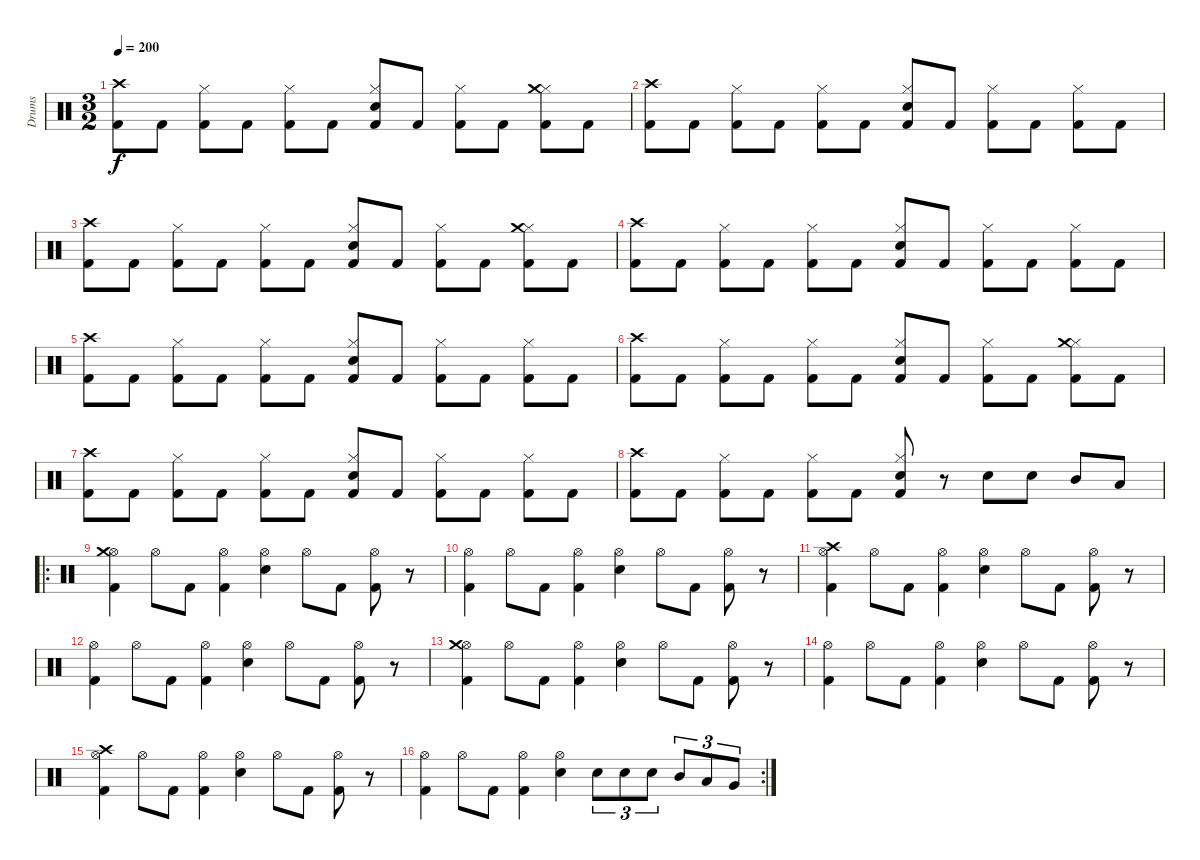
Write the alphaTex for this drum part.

\track ("Drums" "Drums") {instrument percussion}
\staff {score}
\articulation defaults
\ts (3 2)
\tempo 200
\clef neutral
\ks c
("Kick (hit) 2" "Crash high (hit)").8{dy f} "Kick (hit) 2".8 ("Kick (hit) 2" "Hi-Hat (closed)").8 "Kick (hit) 2".8 ("Kick (hit) 2" "Hi-Hat (closed)").8 "Kick (hit) 2".8 ("Kick (hit) 2" "Hi-Hat (closed)" "Snare (hit) 2").8 "Kick (hit) 2".8 ("Kick (hit) 2" "Hi-Hat (closed)").8 "Kick (hit) 2".8 ("Kick (hit) 2" "Hi-Hat (closed)" "Crash medium (hit)").8 "Kick (hit) 2".8 |
("Kick (hit) 2" "Crash high (hit)").8 "Kick (hit) 2".8 ("Kick (hit) 2" "Hi-Hat (closed)").8 "Kick (hit) 2".8 ("Kick (hit) 2" "Hi-Hat (closed)").8 "Kick (hit) 2".8 ("Kick (hit) 2" "Hi-Hat (closed)" "Snare (hit) 2").8 "Kick (hit) 2".8 ("Kick (hit) 2" "Hi-Hat (closed)").8 "Kick (hit) 2".8 ("Kick (hit) 2" "Hi-Hat (closed)").8 "Kick (hit) 2".8 |
("Kick (hit) 2" "Crash high (hit)").8 "Kick (hit) 2".8 ("Kick (hit) 2" "Hi-Hat (closed)").8 "Kick (hit) 2".8 ("Kick (hit) 2" "Hi-Hat (closed)").8 "Kick (hit) 2".8 ("Kick (hit) 2" "Hi-Hat (closed)" "Snare (hit) 2").8 "Kick (hit) 2".8 ("Kick (hit) 2" "Hi-Hat (closed)").8 "Kick (hit) 2".8 ("Kick (hit) 2" "Hi-Hat (closed)" "Crash medium (hit)").8 "Kick (hit) 2".8 |
("Kick (hit) 2" "Crash high (hit)").8 "Kick (hit) 2".8 ("Kick (hit) 2" "Hi-Hat (closed)").8 "Kick (hit) 2".8 ("Kick (hit) 2" "Hi-Hat (closed)").8 "Kick (hit) 2".8 ("Kick (hit) 2" "Hi-Hat (closed)" "Snare (hit) 2").8 "Kick (hit) 2".8 ("Kick (hit) 2" "Hi-Hat (closed)").8 "Kick (hit) 2".8 ("Kick (hit) 2" "Hi-Hat (closed)").8 "Kick (hit) 2".8 |
("Kick (hit) 2" "Crash high (hit)").8 "Kick (hit) 2".8 ("Kick (hit) 2" "Hi-Hat (closed)").8 "Kick (hit) 2".8 ("Kick (hit) 2" "Hi-Hat (closed)").8 "Kick (hit) 2".8 ("Kick (hit) 2" "Hi-Hat (closed)" "Snare (hit) 2").8 "Kick (hit) 2".8 ("Kick (hit) 2" "Hi-Hat (closed)").8 "Kick (hit) 2".8 ("Kick (hit) 2" "Hi-Hat (closed)").8 "Kick (hit) 2".8 |
("Kick (hit) 2" "Crash high (hit)").8 "Kick (hit) 2".8 ("Kick (hit) 2" "Hi-Hat (closed)").8 "Kick (hit) 2".8 ("Kick (hit) 2" "Hi-Hat (closed)").8 "Kick (hit) 2".8 ("Kick (hit) 2" "Hi-Hat (closed)" "Snare (hit) 2").8 "Kick (hit) 2".8 ("Kick (hit) 2" "Hi-Hat (closed)").8 "Kick (hit) 2".8 ("Kick (hit) 2" "Hi-Hat (closed)" "Crash medium (hit)").8 "Kick (hit) 2".8 |
("Kick (hit) 2" "Crash high (hit)").8 "Kick (hit) 2".8 ("Kick (hit) 2" "Hi-Hat (closed)").8 "Kick (hit) 2".8 ("Kick (hit) 2" "Hi-Hat (closed)").8 "Kick (hit) 2".8 ("Kick (hit) 2" "Hi-Hat (closed)" "Snare (hit) 2").8 "Kick (hit) 2".8 ("Kick (hit) 2" "Hi-Hat (closed)").8 "Kick (hit) 2".8 ("Kick (hit) 2" "Hi-Hat (closed)").8 "Kick (hit) 2".8 |
("Kick (hit) 2" "Crash high (hit)").8 "Kick (hit) 2".8 ("Kick (hit) 2" "Hi-Hat (closed)").8 "Kick (hit) 2".8 ("Kick (hit) 2" "Hi-Hat (closed)").8 "Kick (hit) 2".8 ("Kick (hit) 2" "Hi-Hat (closed)" "Snare (hit) 2").8 r.8 "Snare (hit) 2".8 "Snare (hit) 2".8 "Mid Tom (hit)".8 "Low Tom (hit)".8 |
\ro
("Kick (hit) 2" "Hi-Hat (open)" "Crash medium (hit)").4 "Hi-Hat (open)".8 "Kick (hit) 2".8 ("Kick (hit) 2" "Hi-Hat (open)").4 ("Hi-Hat (open)" "Snare (hit) 2").4 "Hi-Hat (open)".8 "Kick (hit) 2".8 ("Kick (hit) 2" "Hi-Hat (open)").8 r.8 |
("Kick (hit) 2" "Hi-Hat (open)").4 "Hi-Hat (open)".8 "Kick (hit) 2".8 ("Kick (hit) 2" "Hi-Hat (open)").4 ("Hi-Hat (open)" "Snare (hit) 2").4 "Hi-Hat (open)".8 "Kick (hit) 2".8 ("Kick (hit) 2" "Hi-Hat (open)").8 r.8 |
("Kick (hit) 2" "Hi-Hat (open)" "Crash high (hit)").4 "Hi-Hat (open)".8 "Kick (hit) 2".8 ("Kick (hit) 2" "Hi-Hat (open)").4 ("Hi-Hat (open)" "Snare (hit) 2").4 "Hi-Hat (open)".8 "Kick (hit) 2".8 ("Kick (hit) 2" "Hi-Hat (open)").8 r.8 |
("Kick (hit) 2" "Hi-Hat (open)").4 "Hi-Hat (open)".8 "Kick (hit) 2".8 ("Kick (hit) 2" "Hi-Hat (open)").4 ("Hi-Hat (open)" "Snare (hit) 2").4 "Hi-Hat (open)".8 "Kick (hit) 2".8 ("Kick (hit) 2" "Hi-Hat (open)").8 r.8 |
("Kick (hit) 2" "Hi-Hat (open)" "Crash medium (hit)").4 "Hi-Hat (open)".8 "Kick (hit) 2".8 ("Kick (hit) 2" "Hi-Hat (open)").4 ("Hi-Hat (open)" "Snare (hit) 2").4 "Hi-Hat (open)".8 "Kick (hit) 2".8 ("Kick (hit) 2" "Hi-Hat (open)").8 r.8 |
("Kick (hit) 2" "Hi-Hat (open)").4 "Hi-Hat (open)".8 "Kick (hit) 2".8 ("Kick (hit) 2" "Hi-Hat (open)").4 ("Hi-Hat (open)" "Snare (hit) 2").4 "Hi-Hat (open)".8 "Kick (hit) 2".8 ("Kick (hit) 2" "Hi-Hat (open)").8 r.8 |
("Kick (hit) 2" "Hi-Hat (open)" "Crash high (hit)").4 "Hi-Hat (open)".8 "Kick (hit) 2".8 ("Kick (hit) 2" "Hi-Hat (open)").4 ("Hi-Hat (open)" "Snare (hit) 2").4 "Hi-Hat (open)".8 "Kick (hit) 2".8 ("Kick (hit) 2" "Hi-Hat (open)").8 r.8 |
\rc 2
("Kick (hit) 2" "Hi-Hat (open)").4 "Hi-Hat (open)".8 "Kick (hit) 2".8 ("Kick (hit) 2" "Hi-Hat (open)").4 ("Hi-Hat (open)" "Snare (hit) 2").4 "Snare (hit) 2".8{tu (3 2)} "Snare (hit) 2".8{tu (3 2)} "Snare (hit) 2".8{tu (3 2)} "Mid Tom (hit)".8{tu (3 2)} "Low Tom (hit)".8{tu (3 2)} "Very Low Tom (hit)".8{tu (3 2)}
